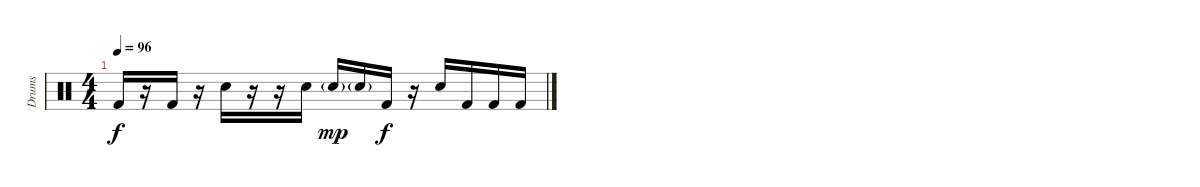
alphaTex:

\track ("Drums" "Drums") {instrument percussion}
\staff {score}
\articulation defaults
\ts (4 4)
\tempo 96
\clef neutral
\ks c "Kick (hit) 2".16{dy f volume 0}
r.16 "Kick (hit) 2".16 r.16 "Snare (hit) 2".16 r.16 r.16 "Snare (hit) 2".16 "Snare (hit) 2"{g}.16{dy mp} "Snare (hit) 2"{g}.16 "Kick (hit) 2".16{dy f} r.16 "Snare (hit) 2".16 "Kick (hit) 2".16 "Kick (hit) 2".16 "Kick (hit) 2".16
